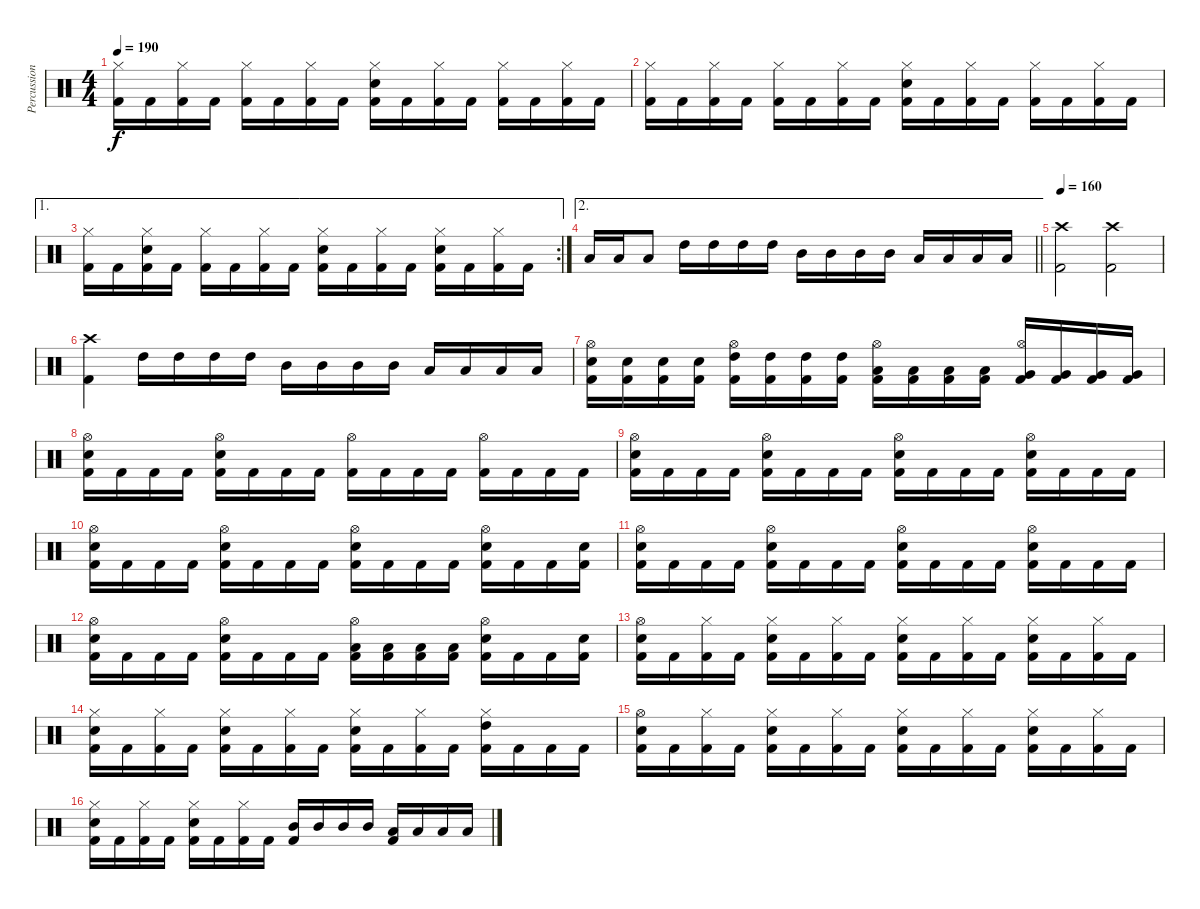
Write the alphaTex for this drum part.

\track ("Percussion" "Percussion") {instrument percussion}
\staff {score}
\articulation defaults
\ts (4 4)
\tempo 190
\clef neutral
\ks c
("Hi-Hat (closed)" "Kick (hit) 2").16{dy f} "Kick (hit) 2".16 ("Hi-Hat (closed)" "Kick (hit) 2").16 "Kick (hit) 2".16 ("Hi-Hat (closed)" "Kick (hit) 2").16 "Kick (hit) 2".16 ("Hi-Hat (closed)" "Kick (hit) 2").16 "Kick (hit) 2".16 ("Hi-Hat (closed)" "Snare (hit) 2" "Kick (hit) 2").16 "Kick (hit) 2".16 ("Hi-Hat (closed)" "Kick (hit) 2").16 "Kick (hit) 2".16 ("Hi-Hat (closed)" "Kick (hit) 2").16 "Kick (hit) 2".16 ("Hi-Hat (closed)" "Kick (hit) 2").16 "Kick (hit) 2".16 |
("Hi-Hat (closed)" "Kick (hit) 2").16 "Kick (hit) 2".16 ("Hi-Hat (closed)" "Kick (hit) 2").16 "Kick (hit) 2".16 ("Hi-Hat (closed)" "Kick (hit) 2").16 "Kick (hit) 2".16 ("Hi-Hat (closed)" "Kick (hit) 2").16 "Kick (hit) 2".16 ("Hi-Hat (closed)" "Snare (hit) 2" "Kick (hit) 2").16 "Kick (hit) 2".16 ("Hi-Hat (closed)" "Kick (hit) 2").16 "Kick (hit) 2".16 ("Hi-Hat (closed)" "Kick (hit) 2").16 "Kick (hit) 2".16 ("Hi-Hat (closed)" "Kick (hit) 2").16 "Kick (hit) 2".16 |
\ae 1
\rc 2
("Hi-Hat (closed)" "Kick (hit) 2").16 "Kick (hit) 2".16 ("Hi-Hat (closed)" "Snare (hit) 2" "Kick (hit) 2").16 "Kick (hit) 2".16 ("Hi-Hat (closed)" "Kick (hit) 2").16 "Kick (hit) 2".16 ("Hi-Hat (closed)" "Kick (hit) 2").16 "Kick (hit) 2".16 ("Hi-Hat (closed)" "Snare (hit) 2" "Kick (hit) 2").16 "Kick (hit) 2".16 ("Hi-Hat (closed)" "Kick (hit) 2").16 "Kick (hit) 2".16 ("Hi-Hat (closed)" "Snare (hit) 2" "Kick (hit) 2").16 "Kick (hit) 2".16 ("Hi-Hat (closed)" "Kick (hit) 2").16 "Kick (hit) 2".16 |
\ae 2
\barLineRight lightlight "Low Tom (hit)".16 "Low Tom (hit)".16 "Low Tom (hit)".8 "High Tom (hit)".16 "High Tom (hit)".16 "High Tom (hit)".16 "High Tom (hit)".16 "Mid Tom (hit)".16 "Mid Tom (hit)".16 "Mid Tom (hit)".16 "Mid Tom (hit)".16 "Low Tom (hit)".16 "Low Tom (hit)".16 "Low Tom (hit)".16 "Low Tom (hit)".16
|
\section ("" "")
\tempo 160
("Crash high (hit)" "Kick (hit) 2").2 ("Crash high (hit)" "Kick (hit) 2").2 |
("Crash high (hit)" "Kick (hit) 2").4 "High Tom (hit)".16 "High Tom (hit)".16 "High Tom (hit)".16 "High Tom (hit)".16 "Mid Tom (hit)".16 "Mid Tom (hit)".16 "Mid Tom (hit)".16 "Mid Tom (hit)".16 "Low Tom (hit)".16 "Low Tom (hit)".16 "Low Tom (hit)".16 "Low Tom (hit)".16 |
("Hi-Hat (open)" "Snare (hit) 2" "Kick (hit) 2").16 ("Snare (hit) 2" "Kick (hit) 2").16 ("Snare (hit) 2" "Kick (hit) 2").16 ("Snare (hit) 2" "Kick (hit) 2").16 ("Hi-Hat (open)" "High Tom (hit)" "Kick (hit) 2").16 ("High Tom (hit)" "Kick (hit) 2").16 ("High Tom (hit)" "Kick (hit) 2").16 ("High Tom (hit)" "Kick (hit) 2").16 ("Hi-Hat (open)" "Low Tom (hit)" "Kick (hit) 2").16 ("Low Tom (hit)" "Kick (hit) 2").16 ("Low Tom (hit)" "Kick (hit) 2").16 ("Low Tom (hit)" "Kick (hit) 2").16 ("Hi-Hat (open)" "Very Low Tom (hit)" "Kick (hit) 2").16 ("Very Low Tom (hit)" "Kick (hit) 2").16 ("Very Low Tom (hit)" "Kick (hit) 2").16 ("Very Low Tom (hit)" "Kick (hit) 2").16 |
("Hi-Hat (open)" "Snare (hit) 2" "Kick (hit) 2").16 "Kick (hit) 2".16 "Kick (hit) 2".16 "Kick (hit) 2".16 ("Hi-Hat (open)" "Snare (hit) 2" "Kick (hit) 2").16 "Kick (hit) 2".16 "Kick (hit) 2".16 "Kick (hit) 2".16 ("Hi-Hat (open)" "Kick (hit) 2").16 "Kick (hit) 2".16 "Kick (hit) 2".16 "Kick (hit) 2".16 ("Hi-Hat (open)" "Kick (hit) 2").16 "Kick (hit) 2".16 "Kick (hit) 2".16 "Kick (hit) 2".16 |
("Hi-Hat (open)" "Snare (hit) 2" "Kick (hit) 2").16 "Kick (hit) 2".16 "Kick (hit) 2".16 "Kick (hit) 2".16 ("Hi-Hat (open)" "Snare (hit) 2" "Kick (hit) 2").16 "Kick (hit) 2".16 "Kick (hit) 2".16 "Kick (hit) 2".16 ("Hi-Hat (open)" "Snare (hit) 2" "Kick (hit) 2").16 "Kick (hit) 2".16 "Kick (hit) 2".16 "Kick (hit) 2".16 ("Hi-Hat (open)" "Snare (hit) 2" "Kick (hit) 2").16 "Kick (hit) 2".16 "Kick (hit) 2".16 "Kick (hit) 2".16 |
("Hi-Hat (open)" "Snare (hit) 2" "Kick (hit) 2").16 "Kick (hit) 2".16 "Kick (hit) 2".16 "Kick (hit) 2".16 ("Hi-Hat (open)" "Snare (hit) 2" "Kick (hit) 2").16 "Kick (hit) 2".16 "Kick (hit) 2".16 "Kick (hit) 2".16 ("Hi-Hat (open)" "Snare (hit) 2" "Kick (hit) 2").16 "Kick (hit) 2".16 "Kick (hit) 2".16 "Kick (hit) 2".16 ("Hi-Hat (open)" "Snare (hit) 2" "Kick (hit) 2").16 "Kick (hit) 2".16 "Kick (hit) 2".16 ("Snare (hit) 2" "Kick (hit) 2").16 |
("Hi-Hat (open)" "Snare (hit) 2" "Kick (hit) 2").16 "Kick (hit) 2".16 "Kick (hit) 2".16 "Kick (hit) 2".16 ("Hi-Hat (open)" "Snare (hit) 2" "Kick (hit) 2").16 "Kick (hit) 2".16 "Kick (hit) 2".16 "Kick (hit) 2".16 ("Hi-Hat (open)" "Snare (hit) 2" "Kick (hit) 2").16 "Kick (hit) 2".16 "Kick (hit) 2".16 "Kick (hit) 2".16 ("Hi-Hat (open)" "Snare (hit) 2" "Kick (hit) 2").16 "Kick (hit) 2".16 "Kick (hit) 2".16 "Kick (hit) 2".16 |
("Hi-Hat (open)" "Snare (hit) 2" "Kick (hit) 2").16 "Kick (hit) 2".16 "Kick (hit) 2".16 "Kick (hit) 2".16 ("Hi-Hat (open)" "Snare (hit) 2" "Kick (hit) 2").16 "Kick (hit) 2".16 "Kick (hit) 2".16 "Kick (hit) 2".16 ("Hi-Hat (open)" "Low Tom (hit)" "Kick (hit) 2").16 ("Low Tom (hit)" "Kick (hit) 2").16 ("Low Tom (hit)" "Kick (hit) 2").16 ("Low Tom (hit)" "Kick (hit) 2").16 ("Hi-Hat (open)" "Snare (hit) 2" "Kick (hit) 2").16 "Kick (hit) 2".16 "Kick (hit) 2".16 ("Snare (hit) 2" "Kick (hit) 2").16 |
("Hi-Hat (open)" "Snare (hit) 2" "Kick (hit) 2").16 "Kick (hit) 2".16 ("Hi-Hat (closed)" "Kick (hit) 2").16 "Kick (hit) 2".16 ("Hi-Hat (closed)" "Snare (hit) 2" "Kick (hit) 2").16 "Kick (hit) 2".16 ("Hi-Hat (closed)" "Kick (hit) 2").16 "Kick (hit) 2".16 ("Hi-Hat (closed)" "Snare (hit) 2" "Kick (hit) 2").16 "Kick (hit) 2".16 ("Hi-Hat (closed)" "Kick (hit) 2").16 "Kick (hit) 2".16 ("Hi-Hat (closed)" "Snare (hit) 2" "Kick (hit) 2").16 "Kick (hit) 2".16 ("Hi-Hat (closed)" "Kick (hit) 2").16 "Kick (hit) 2".16 |
("Hi-Hat (closed)" "Snare (hit) 2" "Kick (hit) 2").16 "Kick (hit) 2".16 ("Hi-Hat (closed)" "Kick (hit) 2").16 "Kick (hit) 2".16 ("Hi-Hat (closed)" "Snare (hit) 2" "Kick (hit) 2").16 "Kick (hit) 2".16 ("Hi-Hat (closed)" "Kick (hit) 2").16 "Kick (hit) 2".16 ("Hi-Hat (closed)" "Snare (hit) 2" "Kick (hit) 2").16 "Kick (hit) 2".16 ("Hi-Hat (closed)" "Kick (hit) 2").16 "Kick (hit) 2".16 ("Hi-Hat (closed)" "High Tom (hit)" "Kick (hit) 2").16 "Kick (hit) 2".16 "Kick (hit) 2".16 "Kick (hit) 2".16 |
("Hi-Hat (open)" "Snare (hit) 2" "Kick (hit) 2").16 "Kick (hit) 2".16 ("Hi-Hat (closed)" "Kick (hit) 2").16 "Kick (hit) 2".16 ("Hi-Hat (closed)" "Snare (hit) 2" "Kick (hit) 2").16 "Kick (hit) 2".16 ("Hi-Hat (closed)" "Kick (hit) 2").16 "Kick (hit) 2".16 ("Hi-Hat (closed)" "Snare (hit) 2" "Kick (hit) 2").16 "Kick (hit) 2".16 ("Hi-Hat (closed)" "Kick (hit) 2").16 "Kick (hit) 2".16 ("Hi-Hat (closed)" "Snare (hit) 2" "Kick (hit) 2").16 "Kick (hit) 2".16 ("Hi-Hat (closed)" "Kick (hit) 2").16 "Kick (hit) 2".16 |
("Hi-Hat (closed)" "Snare (hit) 2" "Kick (hit) 2").16 "Kick (hit) 2".16 ("Hi-Hat (closed)" "Kick (hit) 2").16 "Kick (hit) 2".16 ("Hi-Hat (closed)" "Snare (hit) 2" "Kick (hit) 2").16 "Kick (hit) 2".16 ("Hi-Hat (closed)" "Kick (hit) 2").16 "Kick (hit) 2".16 ("Mid Tom (hit)" "Kick (hit) 2").16 "Mid Tom (hit)".16 "Mid Tom (hit)".16 "Mid Tom (hit)".16 ("Low Tom (hit)" "Kick (hit) 2").16 "Low Tom (hit)".16 "Low Tom (hit)".16 "Low Tom (hit)".16
